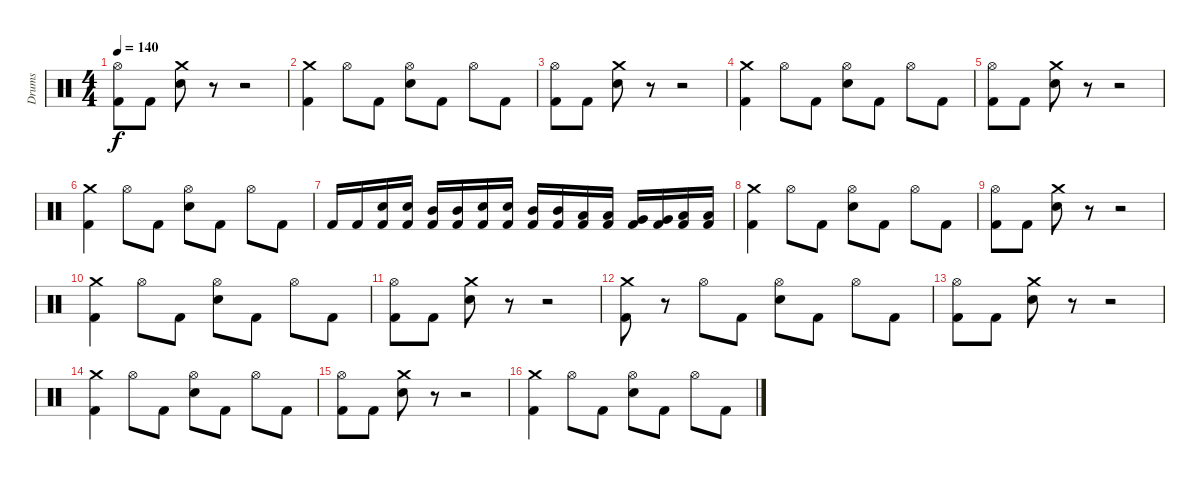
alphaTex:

\track ("Drums" "Drums") {instrument percussion}
\staff {score}
\articulation defaults
\ts (4 4)
\tempo 140
\clef neutral
\ks c
("Hi-Hat (open)" "Kick (hit) 2").8{dy f} "Kick (hit) 2".8 ("Crash medium (hit)" "Electric Snare (hit)").8 r.8 r.2 |
("Crash medium (hit)" "Kick (hit) 2").4 "Hi-Hat (open)".8 "Kick (hit) 2".8 ("Hi-Hat (open)" "Electric Snare (hit)").8 "Kick (hit) 2".8 "Hi-Hat (open)".8 "Kick (hit) 2".8 |
("Hi-Hat (open)" "Kick (hit) 2").8 "Kick (hit) 2".8 ("Crash medium (hit)" "Electric Snare (hit)").8 r.8 r.2 |
("Crash medium (hit)" "Kick (hit) 2").4 "Hi-Hat (open)".8 "Kick (hit) 2".8 ("Hi-Hat (open)" "Electric Snare (hit)").8 "Kick (hit) 2".8 "Hi-Hat (open)".8 "Kick (hit) 2".8 |
("Hi-Hat (open)" "Kick (hit) 2").8 "Kick (hit) 2".8 ("Crash medium (hit)" "Electric Snare (hit)").8 r.8 r.2 |
("Crash medium (hit)" "Kick (hit) 2").4 "Hi-Hat (open)".8 "Kick (hit) 2".8 ("Hi-Hat (open)" "Electric Snare (hit)").8 "Kick (hit) 2".8 "Hi-Hat (open)".8 "Kick (hit) 2".8 |
"Kick (hit) 2".16 "Kick (hit) 2".16 ("Kick (hit) 2" "Electric Snare (hit)").16 ("Kick (hit) 2" "Electric Snare (hit)").16 ("Mid Tom (hit)" "Kick (hit) 2").16 ("Mid Tom (hit)" "Kick (hit) 2").16 ("Electric Snare (hit)" "Kick (hit) 2").16 ("Electric Snare (hit)" "Kick (hit) 2").16 ("Mid Tom (hit)" "Kick (hit) 2").16 ("Mid Tom (hit)" "Kick (hit) 2").16 ("Low Tom (hit)" "Kick (hit) 2").16 ("Low Tom (hit)" "Kick (hit) 2").16 ("Very Low Tom (hit)" "Kick (hit) 2").16 ("Very Low Tom (hit)" "Kick (hit) 2").16 ("Low Floor Tom (hit)" "Kick (hit) 2").16 ("Low Floor Tom (hit)" "Kick (hit) 2").16 |
("Crash medium (hit)" "Kick (hit) 2").4 "Hi-Hat (open)".8 "Kick (hit) 2".8 ("Hi-Hat (open)" "Electric Snare (hit)").8 "Kick (hit) 2".8 "Hi-Hat (open)".8 "Kick (hit) 2".8 |
("Hi-Hat (open)" "Kick (hit) 2").8 "Kick (hit) 2".8 ("Crash medium (hit)" "Electric Snare (hit)").8 r.8 r.2 |
("Crash medium (hit)" "Kick (hit) 2").4 "Hi-Hat (open)".8 "Kick (hit) 2".8 ("Hi-Hat (open)" "Electric Snare (hit)").8 "Kick (hit) 2".8 "Hi-Hat (open)".8 "Kick (hit) 2".8 |
("Hi-Hat (open)" "Kick (hit) 2").8 "Kick (hit) 2".8 ("Crash medium (hit)" "Electric Snare (hit)").8 r.8 r.2 |
("Crash medium (hit)" "Kick (hit) 2").8 r.8 "Hi-Hat (open)".8 "Kick (hit) 2".8 ("Hi-Hat (open)" "Electric Snare (hit)").8 "Kick (hit) 2".8 "Hi-Hat (open)".8 "Kick (hit) 2".8 |
("Hi-Hat (open)" "Kick (hit) 2").8 "Kick (hit) 2".8 ("Crash medium (hit)" "Electric Snare (hit)").8 r.8 r.2 |
("Crash medium (hit)" "Kick (hit) 2").4 "Hi-Hat (open)".8 "Kick (hit) 2".8 ("Hi-Hat (open)" "Electric Snare (hit)").8 "Kick (hit) 2".8 "Hi-Hat (open)".8 "Kick (hit) 2".8 |
("Hi-Hat (open)" "Kick (hit) 2").8 "Kick (hit) 2".8 ("Crash medium (hit)" "Electric Snare (hit)").8 r.8 r.2 |
("Crash medium (hit)" "Kick (hit) 2").4 "Hi-Hat (open)".8 "Kick (hit) 2".8 ("Hi-Hat (open)" "Electric Snare (hit)").8 "Kick (hit) 2".8 "Hi-Hat (open)".8 "Kick (hit) 2".8
